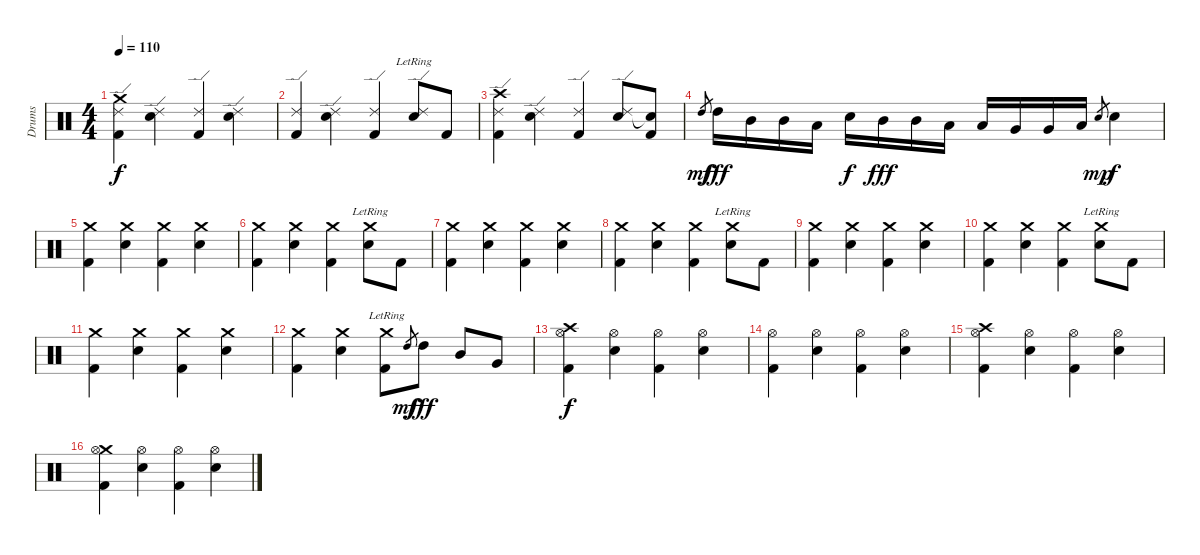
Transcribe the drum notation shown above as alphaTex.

\track ("Drums" "Drums") {instrument percussion}
\staff {score}
\articulation defaults
\ts (4 4)
\tempo 110
\clef neutral
\ks c
("Crash medium (hit)" "Ride (edge) 2" "Kick (hit) 2").4{dy f} ("Ride (edge) 2" "Electric Snare (hit)").4 ("Ride (edge) 2" "Kick (hit) 2").4 ("Ride (edge) 2" "Electric Snare (hit)").4 |
("Ride (edge) 2" "Kick (hit) 2").4 ("Ride (edge) 2" "Electric Snare (hit)").4 ("Ride (edge) 2" "Kick (hit) 2").4 ("Ride (edge) 2"{lr} "Electric Snare (hit)").8 "Kick (hit) 2".8 |
("Crash high (hit)" "Ride (edge) 2" "Kick (hit) 2").4 ("Ride (edge) 2" "Electric Snare (hit)").4 ("Ride (edge) 2" "Kick (hit) 2").4 ("Ride (edge) 2" "Electric Snare (hit)").8 ("Snare (hit)"{t} "Kick (hit) 2").8 |
"High Tom (hit)".8{gr dy mf} "High Tom (hit)".16{dy fff} "Mid Tom (hit)".16 "Mid Tom (hit)".16 "Low Tom (hit)".16 "Electric Snare (hit)".16{dy f} "Mid Tom (hit)".16{dy fff} "Mid Tom (hit)".16 "Low Tom (hit)".16 "Low Tom (hit)".16 "Very Low Tom (hit)".16 "Very Low Tom (hit)".16 "Low Floor Tom (hit)".16 "Electric Snare (hit)".8{gr dy mp} "Electric Snare (hit)".4{dy f} |
("Crash medium (hit)" "Kick (hit) 2").4 ("Crash medium (hit)" "Electric Snare (hit)").4 ("Crash medium (hit)" "Kick (hit) 2").4 ("Crash medium (hit)" "Electric Snare (hit)").4 |
("Crash medium (hit)" "Kick (hit) 2").4 ("Crash medium (hit)" "Electric Snare (hit)").4 ("Crash medium (hit)" "Kick (hit) 2").4 ("Crash medium (hit)"{lr} "Electric Snare (hit)").8 "Kick (hit) 2".8 |
("Crash medium (hit)" "Kick (hit) 2").4 ("Crash medium (hit)" "Electric Snare (hit)").4 ("Crash medium (hit)" "Kick (hit) 2").4 ("Crash medium (hit)" "Electric Snare (hit)").4 |
("Crash medium (hit)" "Kick (hit) 2").4 ("Crash medium (hit)" "Electric Snare (hit)").4 ("Crash medium (hit)" "Kick (hit) 2").4 ("Crash medium (hit)"{lr} "Electric Snare (hit)").8 "Kick (hit) 2".8 |
("Crash medium (hit)" "Kick (hit) 2").4 ("Crash medium (hit)" "Electric Snare (hit)").4 ("Crash medium (hit)" "Kick (hit) 2").4 ("Crash medium (hit)" "Electric Snare (hit)").4 |
("Crash medium (hit)" "Kick (hit) 2").4 ("Crash medium (hit)" "Electric Snare (hit)").4 ("Crash medium (hit)" "Kick (hit) 2").4 ("Crash medium (hit)"{lr} "Electric Snare (hit)").8 "Kick (hit) 2".8 |
("Crash medium (hit)" "Kick (hit) 2").4 ("Crash medium (hit)" "Electric Snare (hit)").4 ("Crash medium (hit)" "Kick (hit) 2").4 ("Crash medium (hit)" "Electric Snare (hit)").4 |
("Crash medium (hit)" "Kick (hit) 2").4 ("Crash medium (hit)" "Electric Snare (hit)").4 ("Crash medium (hit)"{lr} "Kick (hit) 2").8 "High Tom (hit)".8{gr dy mf} "High Tom (hit)".8{dy fff} "Mid Tom (hit)".8 "Very Low Tom (hit)".8 |
("Crash high (hit)" "Hi-Hat (open)" "Kick (hit) 2").4{dy f} ("Hi-Hat (open)" "Electric Snare (hit)").4 ("Hi-Hat (open)" "Kick (hit) 2").4 ("Hi-Hat (open)" "Electric Snare (hit)").4 |
("Hi-Hat (open)" "Kick (hit) 2").4 ("Hi-Hat (open)" "Electric Snare (hit)").4 ("Hi-Hat (open)" "Kick (hit) 2").4 ("Hi-Hat (open)" "Electric Snare (hit)").4 |
("Crash high (hit)" "Hi-Hat (open)" "Kick (hit) 2").4 ("Hi-Hat (open)" "Electric Snare (hit)").4 ("Hi-Hat (open)" "Kick (hit) 2").4 ("Hi-Hat (open)" "Electric Snare (hit)").4 |
("Crash medium (hit)" "Hi-Hat (open)" "Kick (hit) 2").4 ("Hi-Hat (open)" "Electric Snare (hit)").4 ("Hi-Hat (open)" "Kick (hit) 2").4 ("Hi-Hat (open)" "Electric Snare (hit)").4
